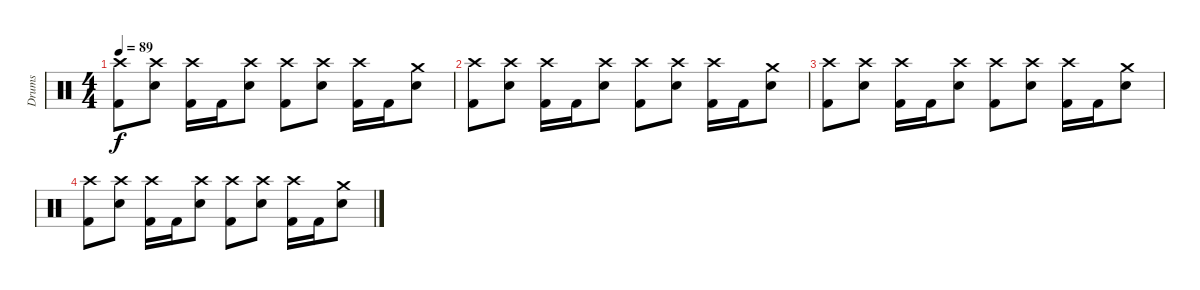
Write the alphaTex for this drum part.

\track ("Drums" "Drums") {instrument percussion}
\staff {score}
\articulation defaults
\ts (4 4)
\tempo 89
\clef neutral
\ks c
("Kick (hit) 2" "Crash high (hit)").8{dy f} ("Electric Snare (hit)" "Crash high (hit)").8 ("Kick (hit) 2" "Crash high (hit)").16 "Kick (hit) 2".16 ("Electric Snare (hit)" "Crash high (hit)").8 ("Kick (hit) 2" "Crash high (hit)").8 ("Electric Snare (hit)" "Crash high (hit)").8 ("Kick (hit) 2" "Crash high (hit)").16 "Kick (hit) 2".16 ("Electric Snare (hit)" "Crash medium (hit)").8 |
("Kick (hit) 2" "Crash high (hit)").8 ("Electric Snare (hit)" "Crash high (hit)").8 ("Kick (hit) 2" "Crash high (hit)").16 "Kick (hit) 2".16 ("Electric Snare (hit)" "Crash high (hit)").8 ("Kick (hit) 2" "Crash high (hit)").8 ("Electric Snare (hit)" "Crash high (hit)").8 ("Kick (hit) 2" "Crash high (hit)").16 "Kick (hit) 2".16 ("Electric Snare (hit)" "Crash medium (hit)").8 |
("Kick (hit) 2" "Crash high (hit)").8 ("Electric Snare (hit)" "Crash high (hit)").8 ("Kick (hit) 2" "Crash high (hit)").16 "Kick (hit) 2".16 ("Electric Snare (hit)" "Crash high (hit)").8 ("Kick (hit) 2" "Crash high (hit)").8 ("Electric Snare (hit)" "Crash high (hit)").8 ("Kick (hit) 2" "Crash high (hit)").16 "Kick (hit) 2".16 ("Electric Snare (hit)" "Crash medium (hit)").8 |
("Kick (hit) 2" "Crash high (hit)").8 ("Electric Snare (hit)" "Crash high (hit)").8 ("Kick (hit) 2" "Crash high (hit)").16 "Kick (hit) 2".16 ("Electric Snare (hit)" "Crash high (hit)").8 ("Kick (hit) 2" "Crash high (hit)").8 ("Electric Snare (hit)" "Crash high (hit)").8 ("Kick (hit) 2" "Crash high (hit)").16 "Kick (hit) 2".16 ("Electric Snare (hit)" "Crash medium (hit)").8
